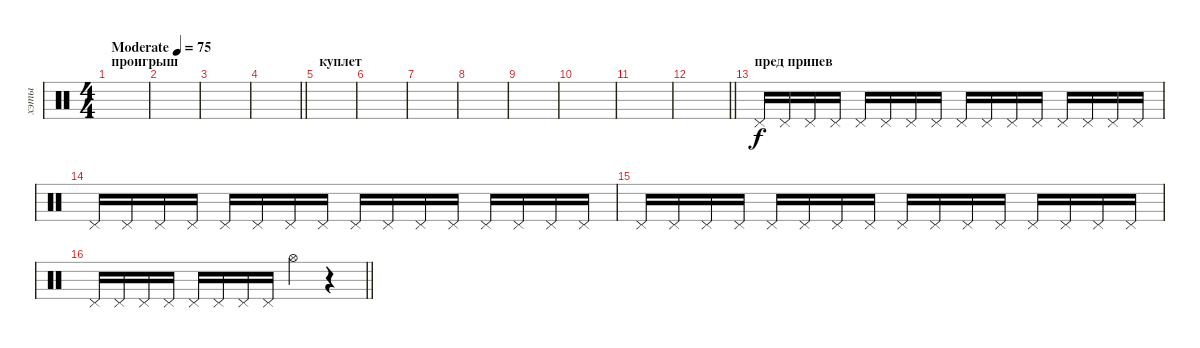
\track ("хэты" "хэты") {instrument percussion}
\staff {score}
\articulation defaults
\ts (4 4)
\section ("" "проигрыш")
\tempo (75 "Moderate")
\clef neutral
\ks c
|
|
|
\barLineRight lightlight
|
\section ("" "куплет")
|
|
|
|
|
|
|
\barLineRight lightlight
|
\section ("" "пред припев")
"Pedal Hi-Hat (hit)".16 "Pedal Hi-Hat (hit)".16 "Pedal Hi-Hat (hit)".16 "Pedal Hi-Hat (hit)".16 "Pedal Hi-Hat (hit)".16 "Pedal Hi-Hat (hit)".16 "Pedal Hi-Hat (hit)".16 "Pedal Hi-Hat (hit)".16 "Pedal Hi-Hat (hit)".16 "Pedal Hi-Hat (hit)".16 "Pedal Hi-Hat (hit)".16 "Pedal Hi-Hat (hit)".16 "Pedal Hi-Hat (hit)".16 "Pedal Hi-Hat (hit)".16 "Pedal Hi-Hat (hit)".16 "Pedal Hi-Hat (hit)".16 |
"Pedal Hi-Hat (hit)".16 "Pedal Hi-Hat (hit)".16 "Pedal Hi-Hat (hit)".16 "Pedal Hi-Hat (hit)".16 "Pedal Hi-Hat (hit)".16 "Pedal Hi-Hat (hit)".16 "Pedal Hi-Hat (hit)".16 "Pedal Hi-Hat (hit)".16 "Pedal Hi-Hat (hit)".16 "Pedal Hi-Hat (hit)".16 "Pedal Hi-Hat (hit)".16 "Pedal Hi-Hat (hit)".16 "Pedal Hi-Hat (hit)".16 "Pedal Hi-Hat (hit)".16 "Pedal Hi-Hat (hit)".16 "Pedal Hi-Hat (hit)".16 |
"Pedal Hi-Hat (hit)".16 "Pedal Hi-Hat (hit)".16 "Pedal Hi-Hat (hit)".16 "Pedal Hi-Hat (hit)".16 "Pedal Hi-Hat (hit)".16 "Pedal Hi-Hat (hit)".16 "Pedal Hi-Hat (hit)".16 "Pedal Hi-Hat (hit)".16 "Pedal Hi-Hat (hit)".16 "Pedal Hi-Hat (hit)".16 "Pedal Hi-Hat (hit)".16 "Pedal Hi-Hat (hit)".16 "Pedal Hi-Hat (hit)".16 "Pedal Hi-Hat (hit)".16 "Pedal Hi-Hat (hit)".16 "Pedal Hi-Hat (hit)".16 |
\barLineRight lightlight "Pedal Hi-Hat (hit)".16 "Pedal Hi-Hat (hit)".16 "Pedal Hi-Hat (hit)".16 "Pedal Hi-Hat (hit)".16 "Pedal Hi-Hat (hit)".16 "Pedal Hi-Hat (hit)".16 "Pedal Hi-Hat (hit)".16 "Pedal Hi-Hat (hit)".16 "Hi-Hat (open)".4
r.4
